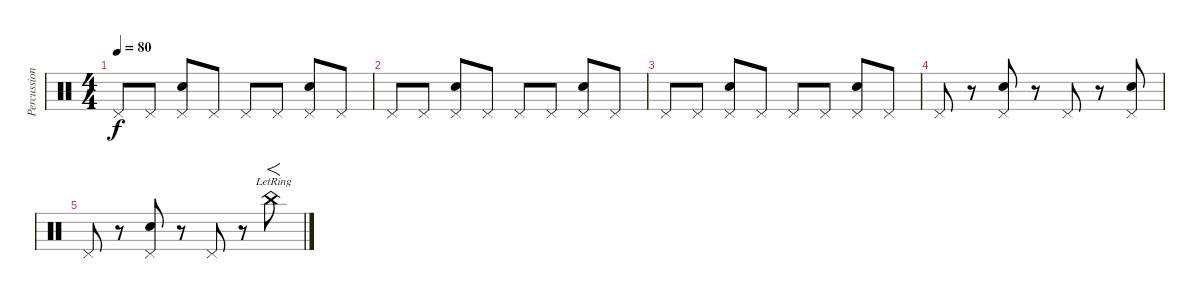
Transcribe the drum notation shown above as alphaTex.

\track ("Percussions" "Percussion") {instrument percussion}
\staff {score}
\articulation defaults
\ts (4 4)
\tempo 80
\clef neutral
\ks c "Pedal Hi-Hat (hit)".8{dy f} "Pedal Hi-Hat (hit)".8
("Pedal Hi-Hat (hit)" "Electric Snare (hit)").8 "Pedal Hi-Hat (hit)".8 "Pedal Hi-Hat (hit)".8 "Pedal Hi-Hat (hit)".8 ("Pedal Hi-Hat (hit)" "Electric Snare (hit)").8 "Pedal Hi-Hat (hit)".8 |
"Pedal Hi-Hat (hit)".8 "Pedal Hi-Hat (hit)".8 ("Pedal Hi-Hat (hit)" "Electric Snare (hit)").8 "Pedal Hi-Hat (hit)".8 "Pedal Hi-Hat (hit)".8 "Pedal Hi-Hat (hit)".8 ("Pedal Hi-Hat (hit)" "Electric Snare (hit)").8 "Pedal Hi-Hat (hit)".8 |
"Pedal Hi-Hat (hit)".8 "Pedal Hi-Hat (hit)".8 ("Pedal Hi-Hat (hit)" "Electric Snare (hit)").8 "Pedal Hi-Hat (hit)".8 "Pedal Hi-Hat (hit)".8 "Pedal Hi-Hat (hit)".8 ("Pedal Hi-Hat (hit)" "Electric Snare (hit)").8 "Pedal Hi-Hat (hit)".8 |
"Pedal Hi-Hat (hit)".8 r.8 ("Pedal Hi-Hat (hit)" "Electric Snare (hit)").8 r.8 "Pedal Hi-Hat (hit)".8 r.8 ("Pedal Hi-Hat (hit)" "Electric Snare (hit)").8 |
"Pedal Hi-Hat (hit)".8 r.8 ("Pedal Hi-Hat (hit)" "Electric Snare (hit)").8 r.8 "Pedal Hi-Hat (hit)".8 r.8 "China (hit)"{lr}.8{f}
